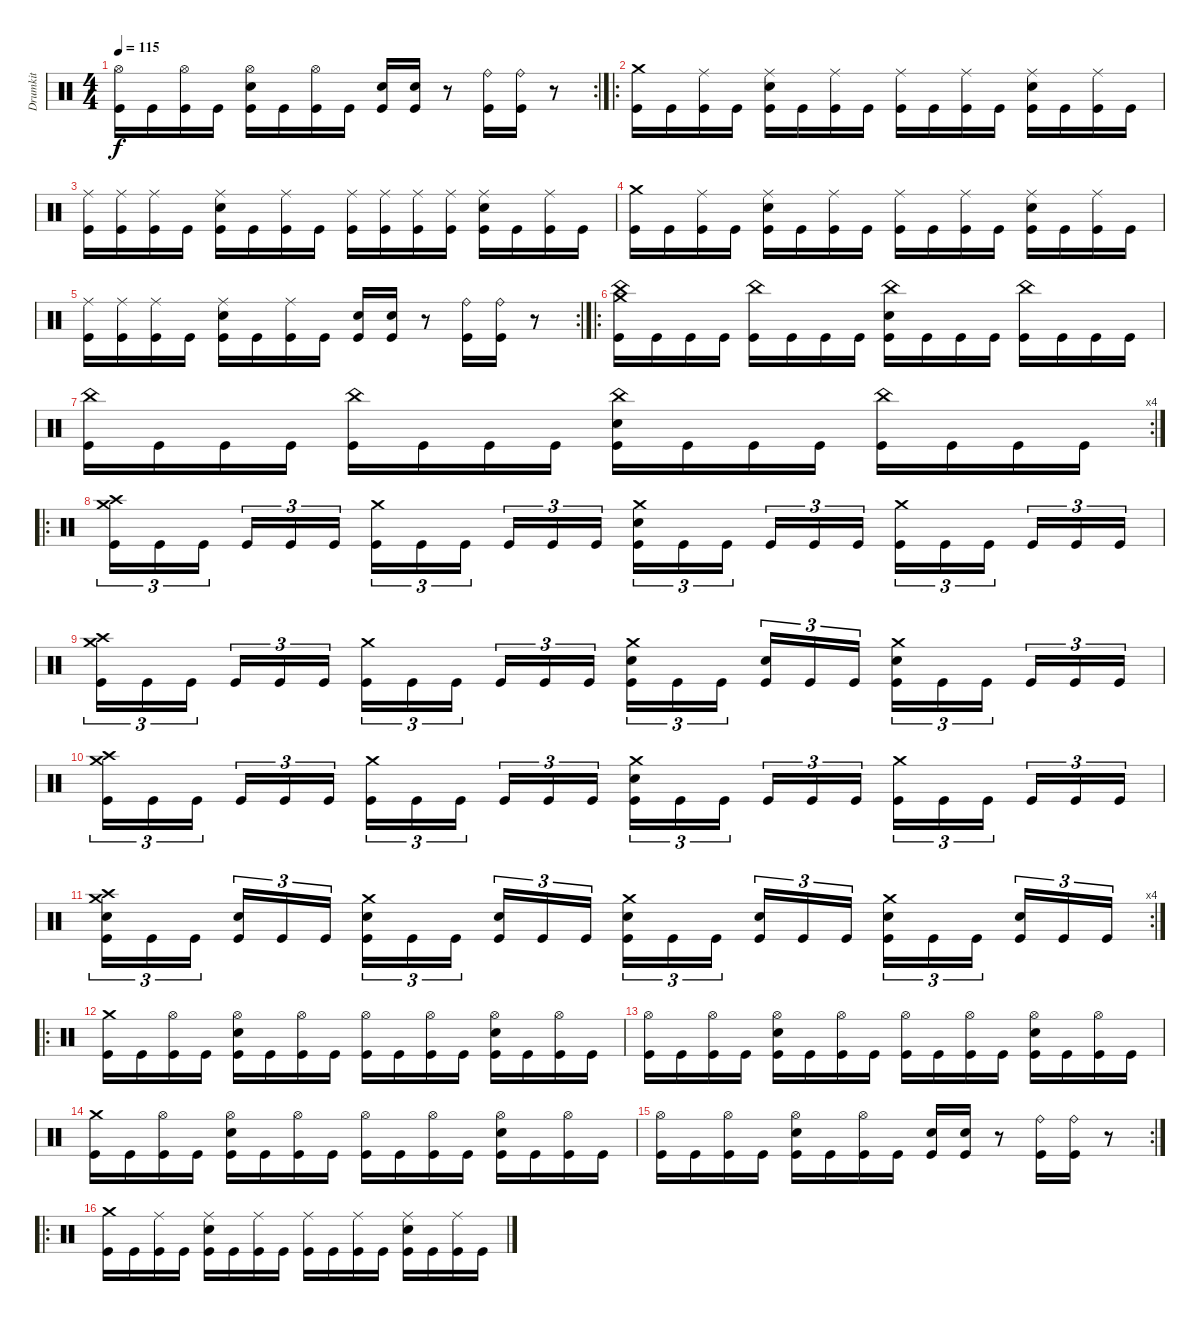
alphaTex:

\track ("Drumkit" "Drumkit") {instrument percussion}
\staff {score}
\articulation defaults
\rc 2
\ts (4 4)
\tempo 115
\clef neutral
\ks c
("Kick (hit)" "Hi-Hat (open)").16{dy f} "Kick (hit)".16 ("Kick (hit)" "Hi-Hat (open)").16 "Kick (hit)".16 ("Kick (hit)" "Hi-Hat (open)" "Snare (hit) 2").16 "Kick (hit)".16 ("Kick (hit)" "Hi-Hat (open)").16 "Kick (hit)".16 ("Kick (hit)" "Snare (hit) 2").16 ("Kick (hit)" "Snare (hit) 2").16 r.8 ("Kick (hit)" "Ride (bell)").16 ("Kick (hit)" "Ride (bell)").16 r.8 |
\ro
("Kick (hit)" "Crash medium (hit)").16 "Kick (hit)".16 ("Kick (hit)" "Ride (middle)").16 "Kick (hit)".16 ("Kick (hit)" "Snare (hit) 2" "Ride (middle)").16 "Kick (hit)".16 ("Kick (hit)" "Ride (middle)").16 "Kick (hit)".16 ("Kick (hit)" "Ride (middle)").16 "Kick (hit)".16 ("Kick (hit)" "Ride (middle)").16 "Kick (hit)".16 ("Kick (hit)" "Snare (hit) 2" "Ride (middle)").16 "Kick (hit)".16 ("Kick (hit)" "Ride (middle)").16 "Kick (hit)".16 |
("Kick (hit)" "Ride (middle)").16 ("Kick (hit)" "Ride (middle)").16 ("Kick (hit)" "Ride (middle)").16 "Kick (hit)".16 ("Kick (hit)" "Snare (hit) 2" "Ride (middle)").16 "Kick (hit)".16 ("Kick (hit)" "Ride (middle)").16 "Kick (hit)".16 ("Kick (hit)" "Ride (middle)").16 ("Kick (hit)" "Ride (middle)").16 ("Kick (hit)" "Ride (middle)").16 ("Kick (hit)" "Ride (middle)").16 ("Kick (hit)" "Snare (hit) 2" "Ride (middle)").16 "Kick (hit)".16 ("Kick (hit)" "Ride (middle)").16 "Kick (hit)".16 |
("Kick (hit)" "Crash medium (hit)").16 "Kick (hit)".16 ("Kick (hit)" "Ride (middle)").16 "Kick (hit)".16 ("Kick (hit)" "Snare (hit) 2" "Ride (middle)").16 "Kick (hit)".16 ("Kick (hit)" "Ride (middle)").16 "Kick (hit)".16 ("Kick (hit)" "Ride (middle)").16 "Kick (hit)".16 ("Kick (hit)" "Ride (middle)").16 "Kick (hit)".16 ("Kick (hit)" "Snare (hit) 2" "Ride (middle)").16 "Kick (hit)".16 ("Kick (hit)" "Ride (middle)").16 "Kick (hit)".16 |
\rc 2
("Kick (hit)" "Ride (middle)").16 ("Kick (hit)" "Ride (middle)").16 ("Kick (hit)" "Ride (middle)").16 "Kick (hit)".16 ("Kick (hit)" "Snare (hit) 2" "Ride (middle)").16 "Kick (hit)".16 ("Kick (hit)" "Ride (middle)").16 "Kick (hit)".16 ("Kick (hit)" "Snare (hit) 2").16 ("Kick (hit)" "Snare (hit) 2").16 r.8 ("Kick (hit)" "Ride (bell)").16 ("Kick (hit)" "Ride (bell)").16 r.8 |
\ro
("Kick (hit)" "Crash medium (hit)" "China (hit)").16 "Kick (hit)".16 "Kick (hit)".16 "Kick (hit)".16 ("Kick (hit)" "China (hit)").16 "Kick (hit)".16 "Kick (hit)".16 "Kick (hit)".16 ("Kick (hit)" "Snare (hit) 2" "China (hit)").16 "Kick (hit)".16 "Kick (hit)".16 "Kick (hit)".16 ("Kick (hit)" "China (hit)").16 "Kick (hit)".16 "Kick (hit)".16 "Kick (hit)".16 |
\rc 4
("Kick (hit)" "China (hit)").16 "Kick (hit)".16 "Kick (hit)".16 "Kick (hit)".16 ("Kick (hit)" "China (hit)").16 "Kick (hit)".16 "Kick (hit)".16 "Kick (hit)".16 ("Kick (hit)" "Snare (hit) 2" "China (hit)").16 "Kick (hit)".16 "Kick (hit)".16 "Kick (hit)".16 ("Kick (hit)" "China (hit)").16 "Kick (hit)".16 "Kick (hit)".16 "Kick (hit)".16 |
\ro
("Kick (hit)" "Crash medium (hit)" "Crash high (hit)").16{tu (3 2)} "Kick (hit)".16{tu (3 2)} "Kick (hit)".16{tu (3 2)} "Kick (hit)".16{tu (3 2)} "Kick (hit)".16{tu (3 2)} "Kick (hit)".16{tu (3 2)} ("Kick (hit)" "Crash medium (hit)").16{tu (3 2)} "Kick (hit)".16{tu (3 2)} "Kick (hit)".16{tu (3 2)} "Kick (hit)".16{tu (3 2)} "Kick (hit)".16{tu (3 2)} "Kick (hit)".16{tu (3 2)} ("Kick (hit)" "Crash medium (hit)" "Snare (hit) 2").16{tu (3 2)} "Kick (hit)".16{tu (3 2)} "Kick (hit)".16{tu (3 2)} "Kick (hit)".16{tu (3 2)} "Kick (hit)".16{tu (3 2)} "Kick (hit)".16{tu (3 2)} ("Kick (hit)" "Crash medium (hit)").16{tu (3 2)} "Kick (hit)".16{tu (3 2)} "Kick (hit)".16{tu (3 2)} "Kick (hit)".16{tu (3 2)} "Kick (hit)".16{tu (3 2)} "Kick (hit)".16{tu (3 2)} |
("Kick (hit)" "Crash medium (hit)" "Crash high (hit)").16{tu (3 2)} "Kick (hit)".16{tu (3 2)} "Kick (hit)".16{tu (3 2)} "Kick (hit)".16{tu (3 2)} "Kick (hit)".16{tu (3 2)} "Kick (hit)".16{tu (3 2)} ("Kick (hit)" "Crash medium (hit)").16{tu (3 2)} "Kick (hit)".16{tu (3 2)} "Kick (hit)".16{tu (3 2)} "Kick (hit)".16{tu (3 2)} "Kick (hit)".16{tu (3 2)} "Kick (hit)".16{tu (3 2)} ("Kick (hit)" "Crash medium (hit)" "Snare (hit) 2").16{tu (3 2)} "Kick (hit)".16{tu (3 2)} "Kick (hit)".16{tu (3 2)} ("Kick (hit)" "Snare (hit) 2").16{tu (3 2)} "Kick (hit)".16{tu (3 2)} "Kick (hit)".16{tu (3 2)} ("Kick (hit)" "Crash medium (hit)" "Snare (hit) 2").16{tu (3 2)} "Kick (hit)".16{tu (3 2)} "Kick (hit)".16{tu (3 2)} "Kick (hit)".16{tu (3 2)} "Kick (hit)".16{tu (3 2)} "Kick (hit)".16{tu (3 2)} |
("Kick (hit)" "Crash medium (hit)" "Crash high (hit)").16{tu (3 2)} "Kick (hit)".16{tu (3 2)} "Kick (hit)".16{tu (3 2)} "Kick (hit)".16{tu (3 2)} "Kick (hit)".16{tu (3 2)} "Kick (hit)".16{tu (3 2)} ("Kick (hit)" "Crash medium (hit)").16{tu (3 2)} "Kick (hit)".16{tu (3 2)} "Kick (hit)".16{tu (3 2)} "Kick (hit)".16{tu (3 2)} "Kick (hit)".16{tu (3 2)} "Kick (hit)".16{tu (3 2)} ("Kick (hit)" "Crash medium (hit)" "Snare (hit) 2").16{tu (3 2)} "Kick (hit)".16{tu (3 2)} "Kick (hit)".16{tu (3 2)} "Kick (hit)".16{tu (3 2)} "Kick (hit)".16{tu (3 2)} "Kick (hit)".16{tu (3 2)} ("Kick (hit)" "Crash medium (hit)").16{tu (3 2)} "Kick (hit)".16{tu (3 2)} "Kick (hit)".16{tu (3 2)} "Kick (hit)".16{tu (3 2)} "Kick (hit)".16{tu (3 2)} "Kick (hit)".16{tu (3 2)} |
\rc 4
("Kick (hit)" "Crash medium (hit)" "Crash high (hit)" "Snare (hit) 2").16{tu (3 2)} "Kick (hit)".16{tu (3 2)} "Kick (hit)".16{tu (3 2)} ("Kick (hit)" "Snare (hit) 2").16{tu (3 2)} "Kick (hit)".16{tu (3 2)} "Kick (hit)".16{tu (3 2)} ("Kick (hit)" "Crash medium (hit)" "Snare (hit) 2").16{tu (3 2)} "Kick (hit)".16{tu (3 2)} "Kick (hit)".16{tu (3 2)} ("Kick (hit)" "Snare (hit) 2").16{tu (3 2)} "Kick (hit)".16{tu (3 2)} "Kick (hit)".16{tu (3 2)} ("Kick (hit)" "Crash medium (hit)" "Snare (hit) 2").16{tu (3 2)} "Kick (hit)".16{tu (3 2)} "Kick (hit)".16{tu (3 2)} ("Kick (hit)" "Snare (hit) 2").16{tu (3 2)} "Kick (hit)".16{tu (3 2)} "Kick (hit)".16{tu (3 2)} ("Kick (hit)" "Crash medium (hit)" "Snare (hit) 2").16{tu (3 2)} "Kick (hit)".16{tu (3 2)} "Kick (hit)".16{tu (3 2)} ("Kick (hit)" "Snare (hit) 2").16{tu (3 2)} "Kick (hit)".16{tu (3 2)} "Kick (hit)".16{tu (3 2)} |
\ro
("Kick (hit)" "Crash medium (hit)").16 "Kick (hit)".16 ("Kick (hit)" "Hi-Hat (open)").16 "Kick (hit)".16 ("Kick (hit)" "Hi-Hat (open)" "Snare (hit) 2").16 "Kick (hit)".16 ("Kick (hit)" "Hi-Hat (open)").16 "Kick (hit)".16 ("Kick (hit)" "Hi-Hat (open)").16 "Kick (hit)".16 ("Kick (hit)" "Hi-Hat (open)").16 "Kick (hit)".16 ("Kick (hit)" "Hi-Hat (open)" "Snare (hit) 2").16 "Kick (hit)".16 ("Kick (hit)" "Hi-Hat (open)").16 "Kick (hit)".16 |
("Kick (hit)" "Hi-Hat (open)").16 "Kick (hit)".16 ("Kick (hit)" "Hi-Hat (open)").16 "Kick (hit)".16 ("Kick (hit)" "Snare (hit) 2" "Hi-Hat (open)").16 "Kick (hit)".16 ("Kick (hit)" "Hi-Hat (open)").16 "Kick (hit)".16 ("Kick (hit)" "Hi-Hat (open)").16 "Kick (hit)".16 ("Kick (hit)" "Hi-Hat (open)").16 "Kick (hit)".16 ("Kick (hit)" "Snare (hit) 2" "Hi-Hat (open)").16 "Kick (hit)".16 ("Kick (hit)" "Hi-Hat (open)").16 "Kick (hit)".16 |
("Kick (hit)" "Crash medium (hit)").16 "Kick (hit)".16 ("Kick (hit)" "Hi-Hat (open)").16 "Kick (hit)".16 ("Kick (hit)" "Hi-Hat (open)" "Snare (hit) 2").16 "Kick (hit)".16 ("Kick (hit)" "Hi-Hat (open)").16 "Kick (hit)".16 ("Kick (hit)" "Hi-Hat (open)").16 "Kick (hit)".16 ("Kick (hit)" "Hi-Hat (open)").16 "Kick (hit)".16 ("Kick (hit)" "Hi-Hat (open)" "Snare (hit) 2").16 "Kick (hit)".16 ("Kick (hit)" "Hi-Hat (open)").16 "Kick (hit)".16 |
\rc 2
("Kick (hit)" "Hi-Hat (open)").16 "Kick (hit)".16 ("Kick (hit)" "Hi-Hat (open)").16 "Kick (hit)".16 ("Kick (hit)" "Hi-Hat (open)" "Snare (hit) 2").16 "Kick (hit)".16 ("Kick (hit)" "Hi-Hat (open)").16 "Kick (hit)".16 ("Kick (hit)" "Snare (hit) 2").16 ("Kick (hit)" "Snare (hit) 2").16 r.8 ("Kick (hit)" "Ride (bell)").16 ("Kick (hit)" "Ride (bell)").16 r.8 |
\ro
("Kick (hit)" "Crash medium (hit)").16 "Kick (hit)".16 ("Kick (hit)" "Ride (middle)").16 "Kick (hit)".16 ("Kick (hit)" "Snare (hit) 2" "Ride (middle)").16 "Kick (hit)".16 ("Kick (hit)" "Ride (middle)").16 "Kick (hit)".16 ("Kick (hit)" "Ride (middle)").16 "Kick (hit)".16 ("Kick (hit)" "Ride (middle)").16 "Kick (hit)".16 ("Kick (hit)" "Snare (hit) 2" "Ride (middle)").16 "Kick (hit)".16 ("Kick (hit)" "Ride (middle)").16 "Kick (hit)".16
